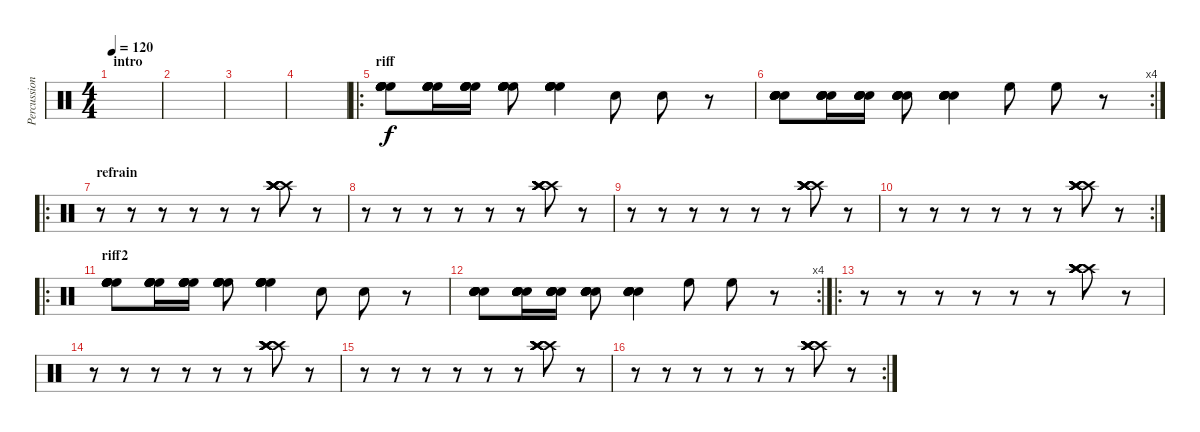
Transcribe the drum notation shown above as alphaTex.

\track ("Percussions" "Percussion") {instrument percussion}
\staff {score}
\articulation defaults
\ts (4 4)
\section ("" "intro")
\tempo 120
\clef neutral
\ks c
|
|
|
|
\ro
\section ("" "riff")
("High Floor Tom (hit)" "High Floor Tom (hit)" "High Floor Tom (hit)" "High Floor Tom (hit)" "High Floor Tom (hit)" "High Floor Tom (hit)").8 ("High Floor Tom (hit)" "High Floor Tom (hit)" "High Floor Tom (hit)" "High Floor Tom (hit)" "High Floor Tom (hit)" "High Floor Tom (hit)").16 ("High Floor Tom (hit)" "High Floor Tom (hit)" "High Floor Tom (hit)" "High Floor Tom (hit)" "High Floor Tom (hit)" "High Floor Tom (hit)").16 ("High Floor Tom (hit)" "High Floor Tom (hit)" "High Floor Tom (hit)" "High Floor Tom (hit)" "High Floor Tom (hit)" "High Floor Tom (hit)").8 ("High Floor Tom (hit)" "High Floor Tom (hit)" "High Floor Tom (hit)" "High Floor Tom (hit)" "High Floor Tom (hit)" "High Floor Tom (hit)").4 "Electric Snare (hit)".8 "Electric Snare (hit)".8 r.8 |
\rc 4
("Electric Snare (hit)" "Electric Snare (hit)" "Electric Snare (hit)" "Electric Snare (hit)" "Electric Snare (hit)" "Electric Snare (hit)").8 ("Electric Snare (hit)" "Electric Snare (hit)" "Electric Snare (hit)" "Electric Snare (hit)" "Electric Snare (hit)" "Electric Snare (hit)").16 ("Electric Snare (hit)" "Electric Snare (hit)" "Electric Snare (hit)" "Electric Snare (hit)" "Electric Snare (hit)" "Electric Snare (hit)").16 ("Electric Snare (hit)" "Electric Snare (hit)" "Electric Snare (hit)" "Electric Snare (hit)" "Electric Snare (hit)" "Electric Snare (hit)").8 ("Electric Snare (hit)" "Electric Snare (hit)" "Electric Snare (hit)" "Electric Snare (hit)" "Electric Snare (hit)" "Electric Snare (hit)").4 "High Floor Tom (hit)".8 "High Floor Tom (hit)".8 r.8 |
\ro
\section ("" "refrain")
r.8 r.8 r.8 r.8 r.8 r.8 ("Crash high (hit)" "Crash high (hit)" "Crash high (hit)" "Crash high (hit)" "Crash high (hit)" "Crash high (hit)").8 r.8 |
r.8 r.8 r.8 r.8 r.8 r.8 ("Crash high (hit)" "Crash high (hit)" "Crash high (hit)" "Crash high (hit)" "Crash high (hit)" "Crash high (hit)").8 r.8 |
r.8 r.8 r.8 r.8 r.8 r.8 ("Crash high (hit)" "Crash high (hit)" "Crash high (hit)" "Crash high (hit)" "Crash high (hit)" "Crash high (hit)").8 r.8 |
\rc 2
r.8 r.8 r.8 r.8 r.8 r.8 ("Crash high (hit)" "Crash high (hit)" "Crash high (hit)" "Crash high (hit)" "Crash high (hit)" "Crash high (hit)").8 r.8 |
\ro
\section ("" "riff2")
("High Floor Tom (hit)" "High Floor Tom (hit)" "High Floor Tom (hit)" "High Floor Tom (hit)" "High Floor Tom (hit)" "High Floor Tom (hit)").8 ("High Floor Tom (hit)" "High Floor Tom (hit)" "High Floor Tom (hit)" "High Floor Tom (hit)" "High Floor Tom (hit)" "High Floor Tom (hit)").16 ("High Floor Tom (hit)" "High Floor Tom (hit)" "High Floor Tom (hit)" "High Floor Tom (hit)" "High Floor Tom (hit)" "High Floor Tom (hit)").16 ("High Floor Tom (hit)" "High Floor Tom (hit)" "High Floor Tom (hit)" "High Floor Tom (hit)" "High Floor Tom (hit)" "High Floor Tom (hit)").8 ("High Floor Tom (hit)" "High Floor Tom (hit)" "High Floor Tom (hit)" "High Floor Tom (hit)" "High Floor Tom (hit)" "High Floor Tom (hit)").4 "Electric Snare (hit)".8 "Electric Snare (hit)".8 r.8 |
\rc 4
("Electric Snare (hit)" "Electric Snare (hit)" "Electric Snare (hit)" "Electric Snare (hit)" "Electric Snare (hit)" "Electric Snare (hit)").8 ("Electric Snare (hit)" "Electric Snare (hit)" "Electric Snare (hit)" "Electric Snare (hit)" "Electric Snare (hit)" "Electric Snare (hit)").16 ("Electric Snare (hit)" "Electric Snare (hit)" "Electric Snare (hit)" "Electric Snare (hit)" "Electric Snare (hit)" "Electric Snare (hit)").16 ("Electric Snare (hit)" "Electric Snare (hit)" "Electric Snare (hit)" "Electric Snare (hit)" "Electric Snare (hit)" "Electric Snare (hit)").8 ("Electric Snare (hit)" "Electric Snare (hit)" "Electric Snare (hit)" "Electric Snare (hit)" "Electric Snare (hit)" "Electric Snare (hit)").4 "High Floor Tom (hit)".8 "High Floor Tom (hit)".8 r.8 |
\ro
r.8 r.8 r.8 r.8 r.8 r.8 ("Crash high (hit)" "Crash high (hit)" "Crash high (hit)" "Crash high (hit)" "Crash high (hit)" "Crash high (hit)").8 r.8 |
r.8 r.8 r.8 r.8 r.8 r.8 ("Crash high (hit)" "Crash high (hit)" "Crash high (hit)" "Crash high (hit)" "Crash high (hit)" "Crash high (hit)").8 r.8 |
r.8 r.8 r.8 r.8 r.8 r.8 ("Crash high (hit)" "Crash high (hit)" "Crash high (hit)" "Crash high (hit)" "Crash high (hit)" "Crash high (hit)").8 r.8 |
\rc 2
r.8 r.8 r.8 r.8 r.8 r.8 ("Crash high (hit)" "Crash high (hit)" "Crash high (hit)" "Crash high (hit)" "Crash high (hit)" "Crash high (hit)").8 r.8
